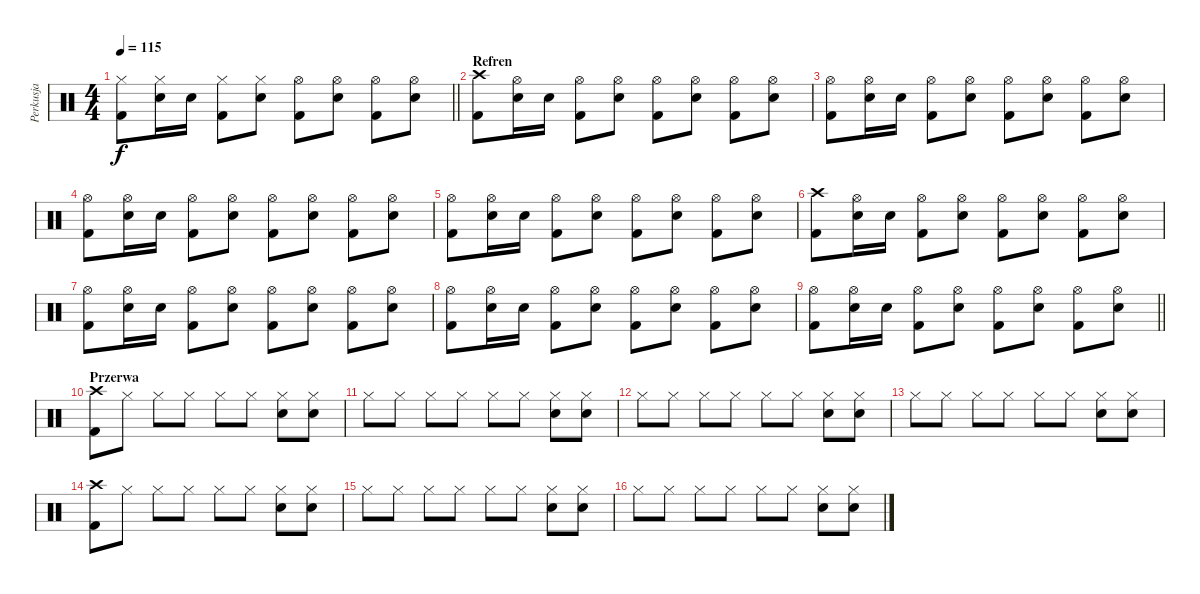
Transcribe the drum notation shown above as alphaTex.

\track ("Perkusja" "Perkusja") {instrument percussion}
\staff {score}
\articulation defaults
\ts (4 4)
\tempo 115
\clef neutral
\barLineRight lightlight
\ks c
("Hi-Hat (closed)" "Kick (hit) 2").8{dy f} ("Hi-Hat (closed)" "Snare (hit) 2").16 "Snare (hit) 2".16 ("Hi-Hat (closed)" "Kick (hit) 2").8 ("Hi-Hat (closed)" "Snare (hit) 2").8 ("Hi-Hat (open)" "Kick (hit) 2").8 ("Hi-Hat (open)" "Snare (hit) 2").8 ("Hi-Hat (open)" "Kick (hit) 2").8 ("Hi-Hat (open)" "Snare (hit) 2").8 |
\section ("" "Refren")
("Crash high (hit)" "Kick (hit) 2").8 ("Hi-Hat (open)" "Snare (hit) 2").16 "Snare (hit) 2".16 ("Hi-Hat (open)" "Kick (hit) 2").8 ("Hi-Hat (open)" "Snare (hit) 2").8 ("Hi-Hat (open)" "Kick (hit) 2").8 ("Hi-Hat (open)" "Snare (hit) 2").8 ("Hi-Hat (open)" "Kick (hit) 2").8 ("Hi-Hat (open)" "Snare (hit) 2").8 |
("Hi-Hat (open)" "Kick (hit) 2").8 ("Hi-Hat (open)" "Snare (hit) 2").16 "Snare (hit) 2".16 ("Hi-Hat (open)" "Kick (hit) 2").8 ("Hi-Hat (open)" "Snare (hit) 2").8 ("Hi-Hat (open)" "Kick (hit) 2").8 ("Hi-Hat (open)" "Snare (hit) 2").8 ("Hi-Hat (open)" "Kick (hit) 2").8 ("Hi-Hat (open)" "Snare (hit) 2").8 |
("Hi-Hat (open)" "Kick (hit) 2").8 ("Hi-Hat (open)" "Snare (hit) 2").16 "Snare (hit) 2".16 ("Hi-Hat (open)" "Kick (hit) 2").8 ("Hi-Hat (open)" "Snare (hit) 2").8 ("Hi-Hat (open)" "Kick (hit) 2").8 ("Hi-Hat (open)" "Snare (hit) 2").8 ("Hi-Hat (open)" "Kick (hit) 2").8 ("Hi-Hat (open)" "Snare (hit) 2").8 |
("Hi-Hat (open)" "Kick (hit) 2").8 ("Hi-Hat (open)" "Snare (hit) 2").16 "Snare (hit) 2".16 ("Hi-Hat (open)" "Kick (hit) 2").8 ("Hi-Hat (open)" "Snare (hit) 2").8 ("Hi-Hat (open)" "Kick (hit) 2").8 ("Hi-Hat (open)" "Snare (hit) 2").8 ("Hi-Hat (open)" "Kick (hit) 2").8 ("Hi-Hat (open)" "Snare (hit) 2").8 |
("Crash high (hit)" "Kick (hit) 2").8 ("Hi-Hat (open)" "Snare (hit) 2").16 "Snare (hit) 2".16 ("Hi-Hat (open)" "Kick (hit) 2").8 ("Hi-Hat (open)" "Snare (hit) 2").8 ("Hi-Hat (open)" "Kick (hit) 2").8 ("Hi-Hat (open)" "Snare (hit) 2").8 ("Hi-Hat (open)" "Kick (hit) 2").8 ("Hi-Hat (open)" "Snare (hit) 2").8 |
("Hi-Hat (open)" "Kick (hit) 2").8 ("Hi-Hat (open)" "Snare (hit) 2").16 "Snare (hit) 2".16 ("Hi-Hat (open)" "Kick (hit) 2").8 ("Hi-Hat (open)" "Snare (hit) 2").8 ("Hi-Hat (open)" "Kick (hit) 2").8 ("Hi-Hat (open)" "Snare (hit) 2").8 ("Hi-Hat (open)" "Kick (hit) 2").8 ("Hi-Hat (open)" "Snare (hit) 2").8 |
("Hi-Hat (open)" "Kick (hit) 2").8 ("Hi-Hat (open)" "Snare (hit) 2").16 "Snare (hit) 2".16 ("Hi-Hat (open)" "Kick (hit) 2").8 ("Hi-Hat (open)" "Snare (hit) 2").8 ("Hi-Hat (open)" "Kick (hit) 2").8 ("Hi-Hat (open)" "Snare (hit) 2").8 ("Hi-Hat (open)" "Kick (hit) 2").8 ("Hi-Hat (open)" "Snare (hit) 2").8 |
\barLineRight lightlight
("Hi-Hat (open)" "Kick (hit) 2").8 ("Hi-Hat (open)" "Snare (hit) 2").16 "Snare (hit) 2".16 ("Hi-Hat (open)" "Kick (hit) 2").8 ("Hi-Hat (open)" "Snare (hit) 2").8 ("Hi-Hat (open)" "Kick (hit) 2").8 ("Hi-Hat (open)" "Snare (hit) 2").8 ("Hi-Hat (open)" "Kick (hit) 2").8 ("Hi-Hat (open)" "Snare (hit) 2").8 |
\section ("" "Przerwa")
("Crash high (hit)" "Kick (hit) 2").8 "Hi-Hat (closed)".8 "Hi-Hat (closed)".8 "Hi-Hat (closed)".8 "Hi-Hat (closed)".8 "Hi-Hat (closed)".8 ("Snare (hit) 2" "Hi-Hat (closed)").8 ("Snare (hit) 2" "Hi-Hat (closed)").8 |
"Hi-Hat (closed)".8 "Hi-Hat (closed)".8 "Hi-Hat (closed)".8 "Hi-Hat (closed)".8 "Hi-Hat (closed)".8 "Hi-Hat (closed)".8 ("Snare (hit) 2" "Hi-Hat (closed)").8 ("Snare (hit) 2" "Hi-Hat (closed)").8 |
"Hi-Hat (closed)".8 "Hi-Hat (closed)".8 "Hi-Hat (closed)".8 "Hi-Hat (closed)".8 "Hi-Hat (closed)".8 "Hi-Hat (closed)".8 ("Snare (hit) 2" "Hi-Hat (closed)").8 ("Snare (hit) 2" "Hi-Hat (closed)").8 |
"Hi-Hat (closed)".8 "Hi-Hat (closed)".8 "Hi-Hat (closed)".8 "Hi-Hat (closed)".8 "Hi-Hat (closed)".8 "Hi-Hat (closed)".8 ("Snare (hit) 2" "Hi-Hat (closed)").8 ("Snare (hit) 2" "Hi-Hat (closed)").8 |
("Crash high (hit)" "Kick (hit) 2").8 "Hi-Hat (closed)".8 "Hi-Hat (closed)".8 "Hi-Hat (closed)".8 "Hi-Hat (closed)".8 "Hi-Hat (closed)".8 ("Snare (hit) 2" "Hi-Hat (closed)").8 ("Snare (hit) 2" "Hi-Hat (closed)").8 |
"Hi-Hat (closed)".8 "Hi-Hat (closed)".8 "Hi-Hat (closed)".8 "Hi-Hat (closed)".8 "Hi-Hat (closed)".8 "Hi-Hat (closed)".8 ("Snare (hit) 2" "Hi-Hat (closed)").8 ("Snare (hit) 2" "Hi-Hat (closed)").8 |
"Hi-Hat (closed)".8 "Hi-Hat (closed)".8 "Hi-Hat (closed)".8 "Hi-Hat (closed)".8 "Hi-Hat (closed)".8 "Hi-Hat (closed)".8 ("Snare (hit) 2" "Hi-Hat (closed)").8 ("Snare (hit) 2" "Hi-Hat (closed)").8
